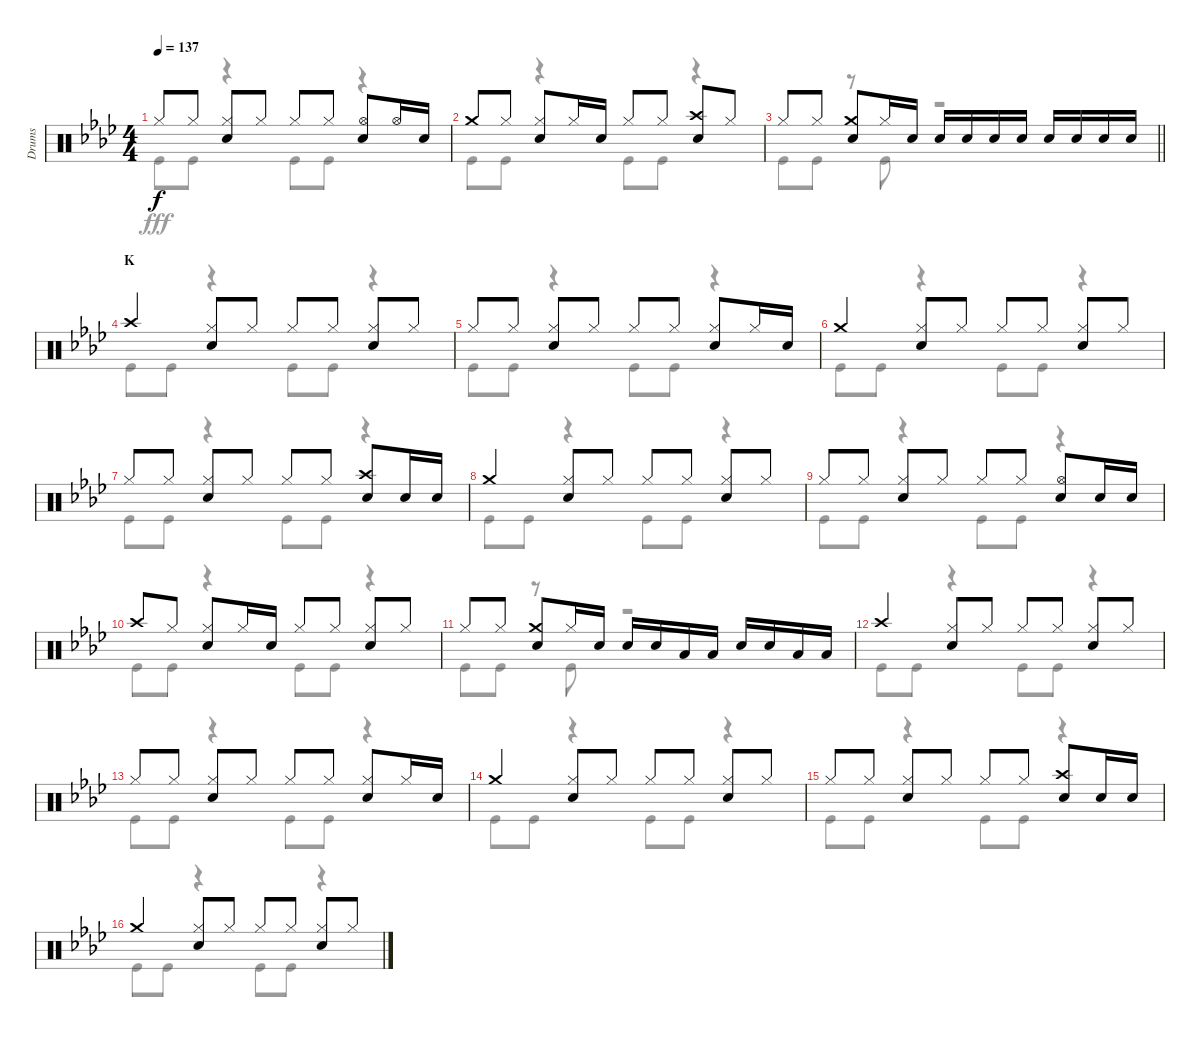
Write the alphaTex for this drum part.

\track ("Drums" "Drums") {instrument percussion}
\staff {score}
\articulation defaults
\voice
\ts (4 4)
\tempo 137
\clef neutral
\ks ab "Hi-Hat (closed)".8{dy f} "Hi-Hat (closed)".8
("Hi-Hat (closed)" "Snare (hit) 2").8 "Hi-Hat (closed)".8 "Hi-Hat (closed)".8 "Hi-Hat (closed)".8 ("Hi-Hat (open)" "Snare (hit) 2").8 "Hi-Hat (open)".16 "Snare (hit) 2".16 |
"Crash medium (hit)".8 "Hi-Hat (closed)".8 ("Hi-Hat (closed)" "Snare (hit) 2").8 "Hi-Hat (closed)".16 "Snare (hit) 2".16 "Hi-Hat (closed)".8 "Hi-Hat (closed)".8 ("Crash high (hit)" "Snare (hit) 2").8 "Hi-Hat (closed)".8 |
\barLineRight lightlight "Hi-Hat (closed)".8 "Hi-Hat (closed)".8
("Crash medium (hit)" "Snare (hit) 2").8 "Hi-Hat (closed)".16 "Snare (hit) 2".16 "Snare (hit) 2".16 "Snare (hit) 2".16 "Snare (hit) 2".16 "Snare (hit) 2".16 "Snare (hit) 2".16 "Snare (hit) 2".16 "Snare (hit) 2".16 "Snare (hit) 2".16 |
\section ("" "K")
"Crash high (hit)".4 ("Hi-Hat (closed)" "Snare (hit) 2").8 "Hi-Hat (closed)".8 "Hi-Hat (closed)".8 "Hi-Hat (closed)".8 ("Hi-Hat (closed)" "Snare (hit) 2").8 "Hi-Hat (closed)".8 |
"Hi-Hat (closed)".8 "Hi-Hat (closed)".8 ("Hi-Hat (closed)" "Snare (hit) 2").8 "Hi-Hat (closed)".8 "Hi-Hat (closed)".8 "Hi-Hat (closed)".8 ("Hi-Hat (closed)" "Snare (hit) 2").8 "Hi-Hat (closed)".16 "Snare (hit) 2".16 |
"Crash medium (hit)".4 ("Hi-Hat (closed)" "Snare (hit) 2").8 "Hi-Hat (closed)".8 "Hi-Hat (closed)".8 "Hi-Hat (closed)".8 ("Hi-Hat (closed)" "Snare (hit) 2").8 "Hi-Hat (closed)".8 |
"Hi-Hat (closed)".8 "Hi-Hat (closed)".8 ("Hi-Hat (closed)" "Snare (hit) 2").8 "Hi-Hat (closed)".8 "Hi-Hat (closed)".8 "Hi-Hat (closed)".8 ("Crash high (hit)" "Snare (hit) 2").8 "Snare (hit) 2".16 "Snare (hit) 2".16 |
"Crash medium (hit)".4 ("Hi-Hat (closed)" "Snare (hit) 2").8 "Hi-Hat (closed)".8 "Hi-Hat (closed)".8 "Hi-Hat (closed)".8 ("Hi-Hat (closed)" "Snare (hit) 2").8 "Hi-Hat (closed)".8 |
"Hi-Hat (closed)".8 "Hi-Hat (closed)".8 ("Hi-Hat (closed)" "Snare (hit) 2").8 "Hi-Hat (closed)".8 "Hi-Hat (closed)".8 "Hi-Hat (closed)".8 ("Hi-Hat (open)" "Snare (hit) 2").8 "Snare (hit) 2".16 "Snare (hit) 2".16 |
"Crash high (hit)".8 "Hi-Hat (closed)".8 ("Hi-Hat (closed)" "Snare (hit) 2").8 "Hi-Hat (closed)".16 "Snare (hit) 2".16 "Hi-Hat (closed)".8 "Hi-Hat (closed)".8 ("Hi-Hat (closed)" "Snare (hit) 2").8 "Hi-Hat (closed)".8 |
"Hi-Hat (closed)".8 "Hi-Hat (closed)".8 ("Crash medium (hit)" "Snare (hit) 2").8 "Hi-Hat (closed)".16 "Snare (hit) 2".16 "Snare (hit) 2".16 "Snare (hit) 2".16 "Low Tom (hit)".16 "Low Tom (hit)".16 "Snare (hit) 2".16 "Snare (hit) 2".16 "Low Tom (hit)".16 "Low Tom (hit)".16 |
"Crash high (hit)".4 ("Hi-Hat (closed)" "Snare (hit) 2").8 "Hi-Hat (closed)".8 "Hi-Hat (closed)".8 "Hi-Hat (closed)".8 ("Hi-Hat (closed)" "Snare (hit) 2").8 "Hi-Hat (closed)".8 |
"Hi-Hat (closed)".8 "Hi-Hat (closed)".8 ("Hi-Hat (closed)" "Snare (hit) 2").8 "Hi-Hat (closed)".8 "Hi-Hat (closed)".8 "Hi-Hat (closed)".8 ("Hi-Hat (closed)" "Snare (hit) 2").8 "Hi-Hat (closed)".16 "Snare (hit) 2".16 |
"Crash medium (hit)".4 ("Hi-Hat (closed)" "Snare (hit) 2").8 "Hi-Hat (closed)".8 "Hi-Hat (closed)".8 "Hi-Hat (closed)".8 ("Hi-Hat (closed)" "Snare (hit) 2").8 "Hi-Hat (closed)".8 |
"Hi-Hat (closed)".8 "Hi-Hat (closed)".8 ("Hi-Hat (closed)" "Snare (hit) 2").8 "Hi-Hat (closed)".8 "Hi-Hat (closed)".8 "Hi-Hat (closed)".8 ("Crash high (hit)" "Snare (hit) 2").8 "Snare (hit) 2".16 "Snare (hit) 2".16 |
"Crash medium (hit)".4 ("Hi-Hat (closed)" "Snare (hit) 2").8 "Hi-Hat (closed)".8 "Hi-Hat (closed)".8 "Hi-Hat (closed)".8 ("Hi-Hat (closed)" "Snare (hit) 2").8 "Hi-Hat (closed)".8
\voice
\clef neutral
\ottava regular
\simile none
\ks ab "Kick (hit)".8{dy fff} "Kick (hit)".8
r.4 "Kick (hit)".8 "Kick (hit)".8 r.4 |
"Kick (hit)".8 "Kick (hit)".8 r.4 "Kick (hit)".8 "Kick (hit)".8 r.4 |
\barLineRight lightlight "Kick (hit)".8 "Kick (hit)".8
r.8 "Kick (hit)".8 r.2 |
"Kick (hit)".8 "Kick (hit)".8 r.4 "Kick (hit)".8 "Kick (hit)".8 r.4 |
"Kick (hit)".8 "Kick (hit)".8 r.4 "Kick (hit)".8 "Kick (hit)".8 r.4 |
"Kick (hit)".8 "Kick (hit)".8 r.4 "Kick (hit)".8 "Kick (hit)".8 r.4 |
"Kick (hit)".8 "Kick (hit)".8 r.4 "Kick (hit)".8 "Kick (hit)".8 r.4 |
"Kick (hit)".8 "Kick (hit)".8 r.4 "Kick (hit)".8 "Kick (hit)".8 r.4 |
"Kick (hit)".8 "Kick (hit)".8 r.4 "Kick (hit)".8 "Kick (hit)".8 r.4 |
"Kick (hit)".8 "Kick (hit)".8 r.4 "Kick (hit)".8 "Kick (hit)".8 r.4 |
"Kick (hit)".8 "Kick (hit)".8 r.8 "Kick (hit)".8 r.2 |
"Kick (hit)".8 "Kick (hit)".8 r.4 "Kick (hit)".8 "Kick (hit)".8 r.4 |
"Kick (hit)".8 "Kick (hit)".8 r.4 "Kick (hit)".8 "Kick (hit)".8 r.4 |
"Kick (hit)".8 "Kick (hit)".8 r.4 "Kick (hit)".8 "Kick (hit)".8 r.4 |
"Kick (hit)".8 "Kick (hit)".8 r.4 "Kick (hit)".8 "Kick (hit)".8 r.4 |
"Kick (hit)".8 "Kick (hit)".8 r.4 "Kick (hit)".8 "Kick (hit)".8 r.4
